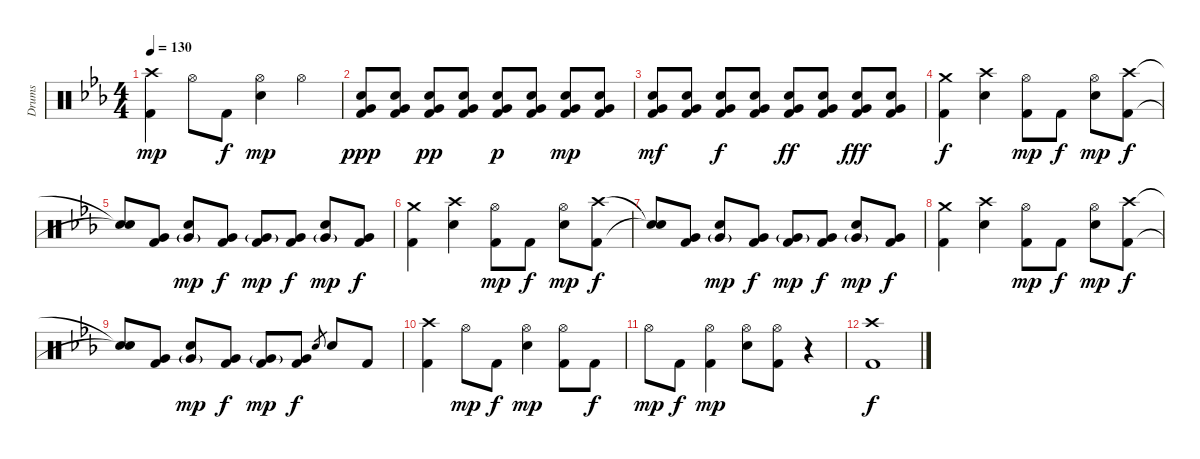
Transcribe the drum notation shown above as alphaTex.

\track ("Drums" "Drums") {instrument percussion}
\staff {score}
\articulation defaults
\ts (4 4)
\tempo 130
\clef neutral
\ks cminor
("Crash high (hit)" "Kick (hit) 2").4{dy mp} "Hi-Hat (open)".8 "Kick (hit) 2".8{dy f} ("Hi-Hat (open)" "Electric Snare (hit)").4{dy mp} "Hi-Hat (open)".4 |
("Electric Snare (hit)" "Very Low Tom (hit)" "Kick (hit) 2").8{dy ppp} ("Electric Snare (hit)" "Very Low Tom (hit)" "Kick (hit) 2").8 ("Electric Snare (hit)" "Very Low Tom (hit)" "Kick (hit) 2").8{dy pp} ("Electric Snare (hit)" "Very Low Tom (hit)" "Kick (hit) 2").8 ("Electric Snare (hit)" "Very Low Tom (hit)" "Kick (hit) 2").8{dy p} ("Electric Snare (hit)" "Very Low Tom (hit)" "Kick (hit) 2").8 ("Electric Snare (hit)" "Very Low Tom (hit)" "Kick (hit) 2").8{dy mp} ("Electric Snare (hit)" "Very Low Tom (hit)" "Kick (hit) 2").8 |
("Electric Snare (hit)" "Very Low Tom (hit)" "Kick (hit) 2").8{dy mf} ("Electric Snare (hit)" "Very Low Tom (hit)" "Kick (hit) 2").8 ("Electric Snare (hit)" "Very Low Tom (hit)" "Kick (hit) 2").8{dy f} ("Electric Snare (hit)" "Very Low Tom (hit)" "Kick (hit) 2").8 ("Electric Snare (hit)" "Very Low Tom (hit)" "Kick (hit) 2").8{dy ff} ("Electric Snare (hit)" "Very Low Tom (hit)" "Kick (hit) 2").8 ("Electric Snare (hit)" "Very Low Tom (hit)" "Kick (hit) 2").8{dy fff} ("Electric Snare (hit)" "Very Low Tom (hit)" "Kick (hit) 2").8 |
("Crash medium (hit)" "Kick (hit) 2").4{dy f} ("Crash high (hit)" "Electric Snare (hit)").4 ("Hi-Hat (open)" "Kick (hit) 2").8{dy mp} "Kick (hit) 2".8{dy f} ("Hi-Hat (open)" "Electric Snare (hit)").8{dy mp} ("Crash high (hit)" "Kick (hit) 2").8{dy f} |
("Snare (hit)"{t} "Snare (hit)"{t}).8 ("Very Low Tom (hit)" "Kick (hit) 2").8 ("Electric Snare (hit)" "Very Low Tom (hit)"{g}).8{dy mp} ("Very Low Tom (hit)" "Kick (hit) 2").8{dy f} ("Very Low Tom (hit)"{g} "Kick (hit) 2").8{dy mp} ("Very Low Tom (hit)" "Kick (hit) 2").8{dy f} ("Electric Snare (hit)" "Very Low Tom (hit)"{g}).8{dy mp} ("Very Low Tom (hit)" "Kick (hit) 2").8{dy f} |
("Crash medium (hit)" "Kick (hit) 2").4 ("Crash high (hit)" "Electric Snare (hit)").4 ("Hi-Hat (open)" "Kick (hit) 2").8{dy mp} "Kick (hit) 2".8{dy f} ("Hi-Hat (open)" "Electric Snare (hit)").8{dy mp} ("Crash high (hit)" "Kick (hit) 2").8{dy f} |
("Snare (hit)"{t} "Snare (hit)"{t}).8 ("Very Low Tom (hit)" "Kick (hit) 2").8 ("Electric Snare (hit)" "Very Low Tom (hit)"{g}).8{dy mp} ("Very Low Tom (hit)" "Kick (hit) 2").8{dy f} ("Very Low Tom (hit)"{g} "Kick (hit) 2").8{dy mp} ("Very Low Tom (hit)" "Kick (hit) 2").8{dy f} ("Electric Snare (hit)" "Very Low Tom (hit)"{g}).8{dy mp} ("Very Low Tom (hit)" "Kick (hit) 2").8{dy f} |
("Crash medium (hit)" "Kick (hit) 2").4 ("Crash high (hit)" "Electric Snare (hit)").4 ("Hi-Hat (open)" "Kick (hit) 2").8{dy mp} "Kick (hit) 2".8{dy f} ("Hi-Hat (open)" "Electric Snare (hit)").8{dy mp} ("Crash high (hit)" "Kick (hit) 2").8{dy f} |
("Snare (hit)"{t} "Snare (hit)"{t}).8 ("Very Low Tom (hit)" "Kick (hit) 2").8 ("Electric Snare (hit)" "Very Low Tom (hit)"{g}).8{dy mp} ("Very Low Tom (hit)" "Kick (hit) 2").8{dy f} ("Very Low Tom (hit)"{g} "Kick (hit) 2").8{dy mp} ("Very Low Tom (hit)" "Kick (hit) 2").8{dy f} "Electric Snare (hit)".8{gr} "Electric Snare (hit)".8 "Kick (hit) 2".8 |
("Crash high (hit)" "Kick (hit) 2").4 "Hi-Hat (open)".8{dy mp} "Kick (hit) 2".8{dy f} ("Hi-Hat (open)" "Electric Snare (hit)").4{dy mp} ("Hi-Hat (open)" "Kick (hit) 2").8 "Kick (hit) 2".8{dy f} |
"Hi-Hat (open)".8{dy mp} "Kick (hit) 2".8{dy f} ("Hi-Hat (open)" "Kick (hit) 2").4{dy mp} ("Hi-Hat (open)" "Electric Snare (hit)").8 ("Hi-Hat (open)" "Kick (hit) 2").8 r.4 |
("Crash high (hit)" "Kick (hit) 2").1{dy f}
